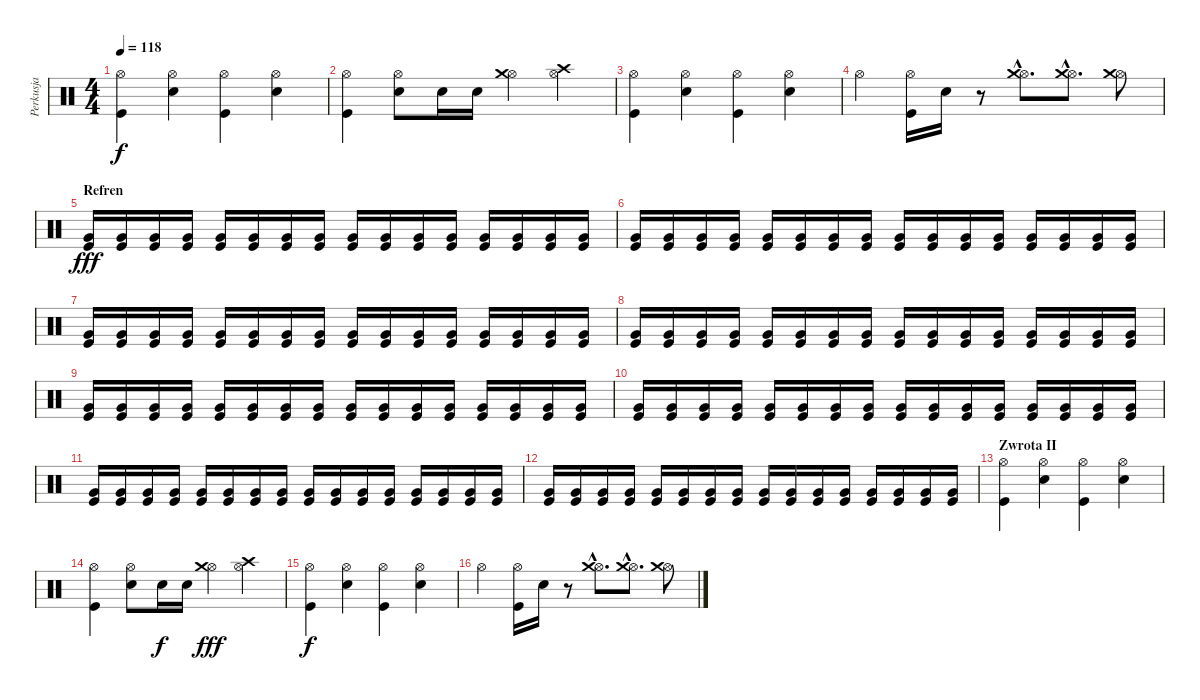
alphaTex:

\track ("Perkusja" "Perkusja") {instrument percussion}
\staff {score}
\articulation defaults
\ts (4 4)
\tempo 118
\clef neutral
\ks c
("Hi-Hat (open)" "Kick (hit)").4{dy f} ("Hi-Hat (open)" "Electric Snare (hit)").4 ("Hi-Hat (open)" "Kick (hit)").4 ("Hi-Hat (open)" "Electric Snare (hit)").4 |
("Hi-Hat (open)" "Kick (hit)").4 ("Hi-Hat (open)" "Electric Snare (hit)").8 "Electric Snare (hit)".16 "Electric Snare (hit)".16 ("Hi-Hat (open)" "Crash medium (hit)").4 ("Hi-Hat (open)" "Crash high (hit)").4 |
("Hi-Hat (open)" "Kick (hit)").4 ("Hi-Hat (open)" "Electric Snare (hit)").4 ("Hi-Hat (open)" "Kick (hit)").4 ("Hi-Hat (open)" "Electric Snare (hit)").4 |
"Hi-Hat (open)".4 ("Hi-Hat (open)" "Kick (hit)").16 "Electric Snare (hit)".16 r.8 ("Hi-Hat (open)"{hac} "Crash medium (hit)"{hac}).8{d} ("Hi-Hat (open)"{hac} "Crash medium (hit)"{hac}).8{d} ("Hi-Hat (open)" "Crash medium (hit)").8 |
\section ("" "Refren")
("Very Low Tom (hit)" "Kick (hit)").16{dy fff} ("Very Low Tom (hit)" "Kick (hit)").16 ("Very Low Tom (hit)" "Kick (hit)").16 ("Very Low Tom (hit)" "Kick (hit)").16 ("Very Low Tom (hit)" "Kick (hit)").16 ("Very Low Tom (hit)" "Kick (hit)").16 ("Very Low Tom (hit)" "Kick (hit)").16 ("Very Low Tom (hit)" "Kick (hit)").16 ("Very Low Tom (hit)" "Kick (hit)").16 ("Very Low Tom (hit)" "Kick (hit)").16 ("Very Low Tom (hit)" "Kick (hit)").16 ("Very Low Tom (hit)" "Kick (hit)").16 ("Very Low Tom (hit)" "Kick (hit)").16 ("Very Low Tom (hit)" "Kick (hit)").16 ("Very Low Tom (hit)" "Kick (hit)").16 ("Very Low Tom (hit)" "Kick (hit)").16 |
("Very Low Tom (hit)" "Kick (hit)").16 ("Very Low Tom (hit)" "Kick (hit)").16 ("Very Low Tom (hit)" "Kick (hit)").16 ("Very Low Tom (hit)" "Kick (hit)").16 ("Very Low Tom (hit)" "Kick (hit)").16 ("Very Low Tom (hit)" "Kick (hit)").16 ("Very Low Tom (hit)" "Kick (hit)").16 ("Very Low Tom (hit)" "Kick (hit)").16 ("Very Low Tom (hit)" "Kick (hit)").16 ("Very Low Tom (hit)" "Kick (hit)").16 ("Very Low Tom (hit)" "Kick (hit)").16 ("Very Low Tom (hit)" "Kick (hit)").16 ("Very Low Tom (hit)" "Kick (hit)").16 ("Very Low Tom (hit)" "Kick (hit)").16 ("Very Low Tom (hit)" "Kick (hit)").16 ("Very Low Tom (hit)" "Kick (hit)").16 |
("Very Low Tom (hit)" "Kick (hit)").16 ("Very Low Tom (hit)" "Kick (hit)").16 ("Very Low Tom (hit)" "Kick (hit)").16 ("Very Low Tom (hit)" "Kick (hit)").16 ("Very Low Tom (hit)" "Kick (hit)").16 ("Very Low Tom (hit)" "Kick (hit)").16 ("Very Low Tom (hit)" "Kick (hit)").16 ("Very Low Tom (hit)" "Kick (hit)").16 ("Very Low Tom (hit)" "Kick (hit)").16 ("Very Low Tom (hit)" "Kick (hit)").16 ("Very Low Tom (hit)" "Kick (hit)").16 ("Very Low Tom (hit)" "Kick (hit)").16 ("Very Low Tom (hit)" "Kick (hit)").16 ("Very Low Tom (hit)" "Kick (hit)").16 ("Very Low Tom (hit)" "Kick (hit)").16 ("Very Low Tom (hit)" "Kick (hit)").16 |
("Very Low Tom (hit)" "Kick (hit)").16 ("Very Low Tom (hit)" "Kick (hit)").16 ("Very Low Tom (hit)" "Kick (hit)").16 ("Very Low Tom (hit)" "Kick (hit)").16 ("Very Low Tom (hit)" "Kick (hit)").16 ("Very Low Tom (hit)" "Kick (hit)").16 ("Very Low Tom (hit)" "Kick (hit)").16 ("Very Low Tom (hit)" "Kick (hit)").16 ("Very Low Tom (hit)" "Kick (hit)").16 ("Very Low Tom (hit)" "Kick (hit)").16 ("Very Low Tom (hit)" "Kick (hit)").16 ("Very Low Tom (hit)" "Kick (hit)").16 ("Very Low Tom (hit)" "Kick (hit)").16 ("Very Low Tom (hit)" "Kick (hit)").16 ("Very Low Tom (hit)" "Kick (hit)").16 ("Very Low Tom (hit)" "Kick (hit)").16 |
("Very Low Tom (hit)" "Kick (hit)").16 ("Very Low Tom (hit)" "Kick (hit)").16 ("Very Low Tom (hit)" "Kick (hit)").16 ("Very Low Tom (hit)" "Kick (hit)").16 ("Very Low Tom (hit)" "Kick (hit)").16 ("Very Low Tom (hit)" "Kick (hit)").16 ("Very Low Tom (hit)" "Kick (hit)").16 ("Very Low Tom (hit)" "Kick (hit)").16 ("Very Low Tom (hit)" "Kick (hit)").16 ("Very Low Tom (hit)" "Kick (hit)").16 ("Very Low Tom (hit)" "Kick (hit)").16 ("Very Low Tom (hit)" "Kick (hit)").16 ("Very Low Tom (hit)" "Kick (hit)").16 ("Very Low Tom (hit)" "Kick (hit)").16 ("Very Low Tom (hit)" "Kick (hit)").16 ("Very Low Tom (hit)" "Kick (hit)").16 |
("Very Low Tom (hit)" "Kick (hit)").16 ("Very Low Tom (hit)" "Kick (hit)").16 ("Very Low Tom (hit)" "Kick (hit)").16 ("Very Low Tom (hit)" "Kick (hit)").16 ("Very Low Tom (hit)" "Kick (hit)").16 ("Very Low Tom (hit)" "Kick (hit)").16 ("Very Low Tom (hit)" "Kick (hit)").16 ("Very Low Tom (hit)" "Kick (hit)").16 ("Very Low Tom (hit)" "Kick (hit)").16 ("Very Low Tom (hit)" "Kick (hit)").16 ("Very Low Tom (hit)" "Kick (hit)").16 ("Very Low Tom (hit)" "Kick (hit)").16 ("Very Low Tom (hit)" "Kick (hit)").16 ("Very Low Tom (hit)" "Kick (hit)").16 ("Very Low Tom (hit)" "Kick (hit)").16 ("Very Low Tom (hit)" "Kick (hit)").16 |
("Very Low Tom (hit)" "Kick (hit)").16 ("Very Low Tom (hit)" "Kick (hit)").16 ("Very Low Tom (hit)" "Kick (hit)").16 ("Very Low Tom (hit)" "Kick (hit)").16 ("Very Low Tom (hit)" "Kick (hit)").16 ("Very Low Tom (hit)" "Kick (hit)").16 ("Very Low Tom (hit)" "Kick (hit)").16 ("Very Low Tom (hit)" "Kick (hit)").16 ("Very Low Tom (hit)" "Kick (hit)").16 ("Very Low Tom (hit)" "Kick (hit)").16 ("Very Low Tom (hit)" "Kick (hit)").16 ("Very Low Tom (hit)" "Kick (hit)").16 ("Very Low Tom (hit)" "Kick (hit)").16 ("Very Low Tom (hit)" "Kick (hit)").16 ("Very Low Tom (hit)" "Kick (hit)").16 ("Very Low Tom (hit)" "Kick (hit)").16 |
("Very Low Tom (hit)" "Kick (hit)").16 ("Very Low Tom (hit)" "Kick (hit)").16 ("Very Low Tom (hit)" "Kick (hit)").16 ("Very Low Tom (hit)" "Kick (hit)").16 ("Very Low Tom (hit)" "Kick (hit)").16 ("Very Low Tom (hit)" "Kick (hit)").16 ("Very Low Tom (hit)" "Kick (hit)").16 ("Very Low Tom (hit)" "Kick (hit)").16 ("Very Low Tom (hit)" "Kick (hit)").16 ("Very Low Tom (hit)" "Kick (hit)").16 ("Very Low Tom (hit)" "Kick (hit)").16 ("Very Low Tom (hit)" "Kick (hit)").16 ("Very Low Tom (hit)" "Kick (hit)").16 ("Very Low Tom (hit)" "Kick (hit)").16 ("Very Low Tom (hit)" "Kick (hit)").16 ("Very Low Tom (hit)" "Kick (hit)").16 |
\section ("" "Zwrota II")
("Hi-Hat (open)" "Kick (hit)").4 ("Hi-Hat (open)" "Electric Snare (hit)").4 ("Hi-Hat (open)" "Kick (hit)").4 ("Hi-Hat (open)" "Electric Snare (hit)").4 |
("Hi-Hat (open)" "Kick (hit)").4 ("Hi-Hat (open)" "Electric Snare (hit)").8 "Electric Snare (hit)".16{dy f} "Electric Snare (hit)".16 ("Hi-Hat (open)" "Crash medium (hit)").4{dy fff} ("Hi-Hat (open)" "Crash high (hit)").4 |
("Hi-Hat (open)" "Kick (hit)").4{dy f} ("Hi-Hat (open)" "Electric Snare (hit)").4 ("Hi-Hat (open)" "Kick (hit)").4 ("Hi-Hat (open)" "Electric Snare (hit)").4 |
"Hi-Hat (open)".4 ("Hi-Hat (open)" "Kick (hit)").16 "Electric Snare (hit)".16 r.8 ("Hi-Hat (open)"{hac} "Crash medium (hit)"{hac}).8{d} ("Hi-Hat (open)"{hac} "Crash medium (hit)"{hac}).8{d} ("Hi-Hat (open)" "Crash medium (hit)").8
